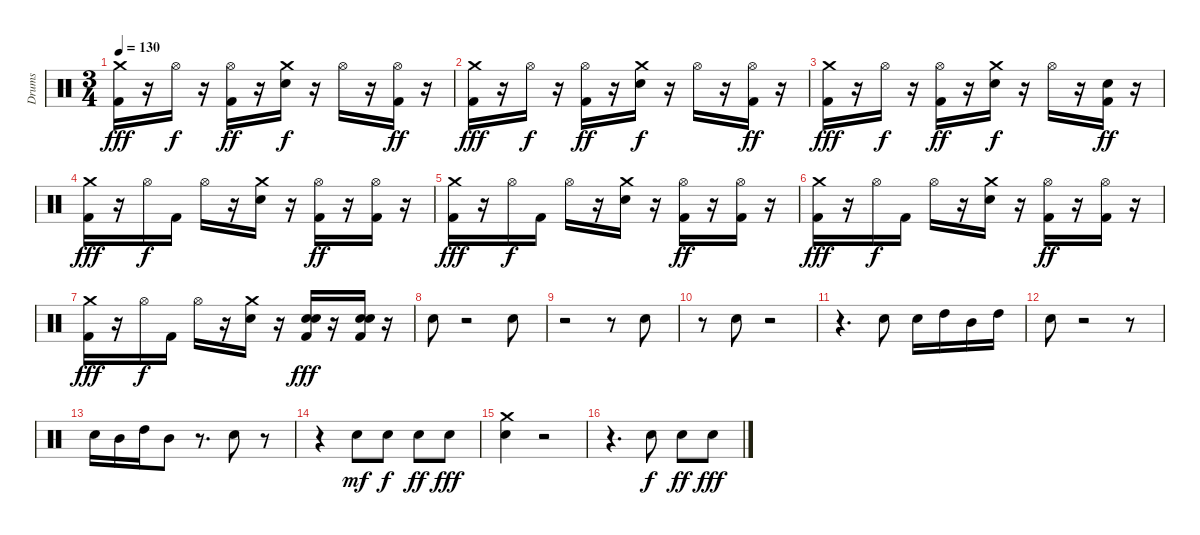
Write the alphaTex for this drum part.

\track ("Drums" "Drums") {instrument percussion}
\staff {score}
\articulation defaults
\ts (3 4)
\tempo 130
\clef neutral
\ks c
("Kick (hit) 2" "Crash medium (hit)").16{dy fff} r.16 "Hi-Hat (open)".16{dy f} r.16 ("Kick (hit) 2" "Hi-Hat (open)").16{dy ff} r.16 ("Electric Snare (hit)" "Crash medium (hit)").16{dy f} r.16 "Hi-Hat (open)".16 r.16 ("Kick (hit) 2" "Hi-Hat (open)").16{dy ff} r.16 |
("Kick (hit) 2" "Crash medium (hit)").16{dy fff} r.16 "Hi-Hat (open)".16{dy f} r.16 ("Kick (hit) 2" "Hi-Hat (open)").16{dy ff} r.16 ("Electric Snare (hit)" "Crash medium (hit)").16{dy f} r.16 "Hi-Hat (open)".16 r.16 ("Kick (hit) 2" "Hi-Hat (open)").16{dy ff} r.16 |
("Kick (hit) 2" "Crash medium (hit)").16{dy fff} r.16 "Hi-Hat (open)".16{dy f} r.16 ("Kick (hit) 2" "Hi-Hat (open)").16{dy ff} r.16 ("Electric Snare (hit)" "Crash medium (hit)").16{dy f} r.16 "Hi-Hat (open)".16 r.16 ("Kick (hit) 2" "Electric Snare (hit)").16{dy ff} r.16 |
("Kick (hit) 2" "Crash medium (hit)").16{dy fff} r.16 "Hi-Hat (open)".16{dy f} "Kick (hit) 2".16 "Hi-Hat (open)".16 r.16 ("Electric Snare (hit)" "Crash medium (hit)").16 r.16 ("Kick (hit) 2" "Hi-Hat (open)").16{dy ff} r.16 ("Kick (hit) 2" "Hi-Hat (open)").16 r.16 |
("Kick (hit) 2" "Crash medium (hit)").16{dy fff} r.16 "Hi-Hat (open)".16{dy f} "Kick (hit) 2".16 "Hi-Hat (open)".16 r.16 ("Electric Snare (hit)" "Crash medium (hit)").16 r.16 ("Kick (hit) 2" "Hi-Hat (open)").16{dy ff} r.16 ("Kick (hit) 2" "Hi-Hat (open)").16 r.16 |
("Kick (hit) 2" "Crash medium (hit)").16{dy fff} r.16 "Hi-Hat (open)".16{dy f} "Kick (hit) 2".16 "Hi-Hat (open)".16 r.16 ("Electric Snare (hit)" "Crash medium (hit)").16 r.16 ("Kick (hit) 2" "Hi-Hat (open)").16{dy ff} r.16 ("Kick (hit) 2" "Hi-Hat (open)").16 r.16 |
("Kick (hit) 2" "Crash medium (hit)").16{dy fff} r.16 "Hi-Hat (open)".16{dy f} "Kick (hit) 2".16 "Hi-Hat (open)".16 r.16 ("Electric Snare (hit)" "Crash medium (hit)").16 r.16 ("Kick (hit) 2" "Snare (hit) 2" "Electric Snare (hit)").16{dy fff} r.16 ("Kick (hit) 2" "Snare (hit) 2" "Electric Snare (hit)").16 r.16 |
"Electric Snare (hit)".8 r.2 "Electric Snare (hit)".8 |
r.2 r.8 "Electric Snare (hit)".8 |
r.8 "Electric Snare (hit)".8 r.2 |
r.4{d} "Electric Snare (hit)".8 "Electric Snare (hit)".16 "High Tom (hit)".16 "Mid Tom (hit)".16 "High Tom (hit)".16 |
"Electric Snare (hit)".8 r.2 r.8 |
"Electric Snare (hit)".16 "Mid Tom (hit)".16 "High Tom (hit)".16 "Mid Tom (hit)".8 r.8{d} "Electric Snare (hit)".8 r.8 |
r.4 "Electric Snare (hit)".8{dy mf} "Electric Snare (hit)".8{dy f} "Electric Snare (hit)".8{dy ff} "Electric Snare (hit)".8{dy fff} |
("Electric Snare (hit)" "Crash medium (hit)").4 r.2 |
r.4{d} "Electric Snare (hit)".8{dy f} "Electric Snare (hit)".8{dy ff} "Electric Snare (hit)".8{dy fff}
